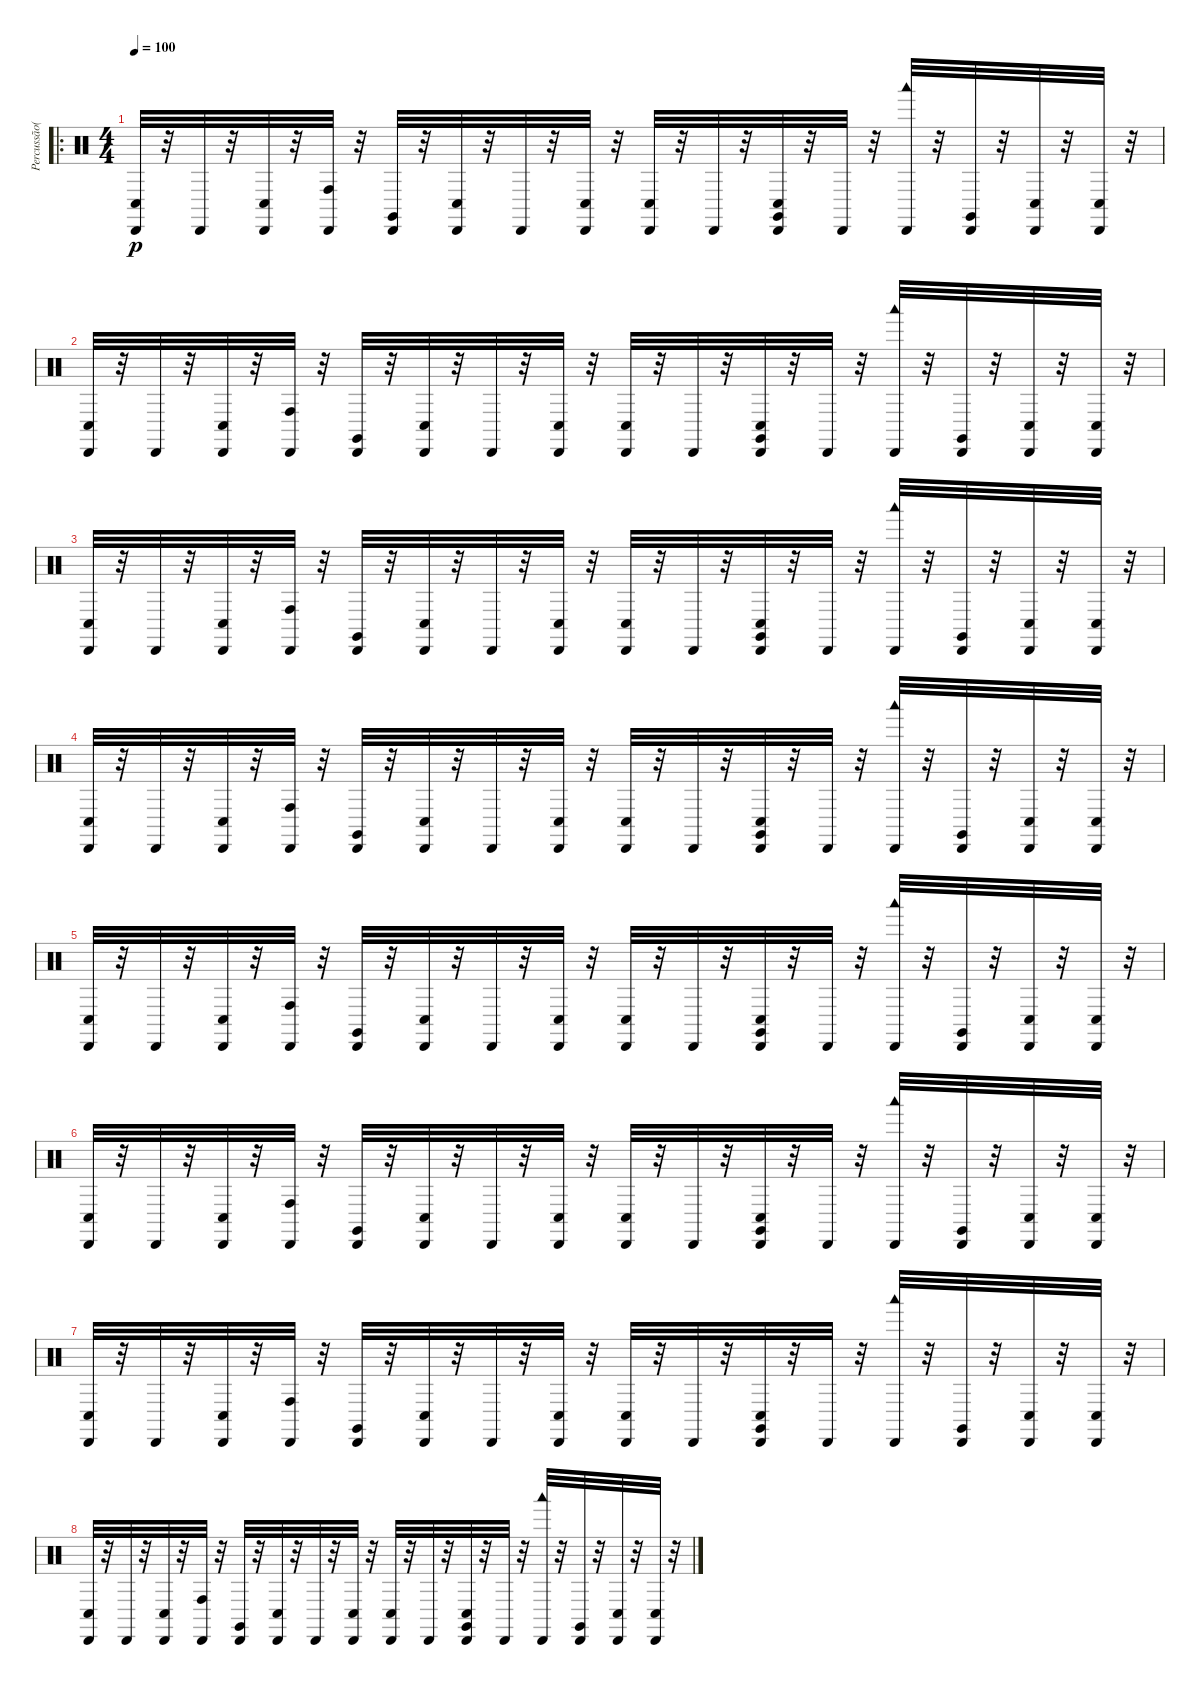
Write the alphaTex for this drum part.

\track ("Percussão(Percussion)" "Percussão(") {instrument percussion}
\staff {score}
\articulation defaults
\ro
\ts (4 4)
\tempo 100
\clef neutral
\ks c
("Cabasa (hit)" "Conga low (hit)").32{dy p} r.32 "Cabasa (hit)".32 r.32 ("Cabasa (hit)" "Conga low (hit)").32 r.32 ("Cabasa (hit)" "Conga high (hit)").32 r.32 ("Cabasa (hit)" "Claves (hit)").32 r.32 ("Cabasa (hit)" "Conga low (hit)").32 r.32 "Cabasa (hit)".32 r.32 ("Cabasa (hit)" "Conga low (hit)").32 r.32 ("Cabasa (hit)" "Conga low (hit)").32 r.32 "Cabasa (hit)".32 r.32 ("Cabasa (hit)" "Claves (hit)" "Conga low (hit)").32 r.32 "Cabasa (hit)".32 r.32 ("Cabasa (hit)" "Woodblock low (hit)").32 r.32 ("Cabasa (hit)" "Claves (hit)").32 r.32 ("Cabasa (hit)" "Conga low (hit)").32 r.32 ("Cabasa (hit)" "Conga low (hit)").32 r.32 |
("Cabasa (hit)" "Conga low (hit)").32 r.32 "Cabasa (hit)".32 r.32 ("Cabasa (hit)" "Conga low (hit)").32 r.32 ("Cabasa (hit)" "Conga high (hit)").32 r.32 ("Cabasa (hit)" "Claves (hit)").32 r.32 ("Cabasa (hit)" "Conga low (hit)").32 r.32 "Cabasa (hit)".32 r.32 ("Cabasa (hit)" "Conga low (hit)").32 r.32 ("Cabasa (hit)" "Conga low (hit)").32 r.32 "Cabasa (hit)".32 r.32 ("Cabasa (hit)" "Claves (hit)" "Conga low (hit)").32 r.32 "Cabasa (hit)".32 r.32 ("Cabasa (hit)" "Woodblock low (hit)").32 r.32 ("Cabasa (hit)" "Claves (hit)").32 r.32 ("Cabasa (hit)" "Conga low (hit)").32 r.32 ("Cabasa (hit)" "Conga low (hit)").32 r.32 |
("Cabasa (hit)" "Conga low (hit)").32 r.32 "Cabasa (hit)".32 r.32 ("Cabasa (hit)" "Conga low (hit)").32 r.32 ("Cabasa (hit)" "Conga high (hit)").32 r.32 ("Cabasa (hit)" "Claves (hit)").32 r.32 ("Cabasa (hit)" "Conga low (hit)").32 r.32 "Cabasa (hit)".32 r.32 ("Cabasa (hit)" "Conga low (hit)").32 r.32 ("Cabasa (hit)" "Conga low (hit)").32 r.32 "Cabasa (hit)".32 r.32 ("Cabasa (hit)" "Claves (hit)" "Conga low (hit)").32 r.32 "Cabasa (hit)".32 r.32 ("Cabasa (hit)" "Woodblock low (hit)").32 r.32 ("Cabasa (hit)" "Claves (hit)").32 r.32 ("Cabasa (hit)" "Conga low (hit)").32 r.32 ("Cabasa (hit)" "Conga low (hit)").32 r.32 |
("Cabasa (hit)" "Conga low (hit)").32 r.32 "Cabasa (hit)".32 r.32 ("Cabasa (hit)" "Conga low (hit)").32 r.32 ("Cabasa (hit)" "Conga high (hit)").32 r.32 ("Cabasa (hit)" "Claves (hit)").32 r.32 ("Cabasa (hit)" "Conga low (hit)").32 r.32 "Cabasa (hit)".32 r.32 ("Cabasa (hit)" "Conga low (hit)").32 r.32 ("Cabasa (hit)" "Conga low (hit)").32 r.32 "Cabasa (hit)".32 r.32 ("Cabasa (hit)" "Claves (hit)" "Conga low (hit)").32 r.32 "Cabasa (hit)".32 r.32 ("Cabasa (hit)" "Woodblock low (hit)").32 r.32 ("Cabasa (hit)" "Claves (hit)").32 r.32 ("Cabasa (hit)" "Conga low (hit)").32 r.32 ("Cabasa (hit)" "Conga low (hit)").32 r.32 |
("Cabasa (hit)" "Conga low (hit)").32 r.32 "Cabasa (hit)".32 r.32 ("Cabasa (hit)" "Conga low (hit)").32 r.32 ("Cabasa (hit)" "Conga high (hit)").32 r.32 ("Cabasa (hit)" "Claves (hit)").32 r.32 ("Cabasa (hit)" "Conga low (hit)").32 r.32 "Cabasa (hit)".32 r.32 ("Cabasa (hit)" "Conga low (hit)").32 r.32 ("Cabasa (hit)" "Conga low (hit)").32 r.32 "Cabasa (hit)".32 r.32 ("Cabasa (hit)" "Claves (hit)" "Conga low (hit)").32 r.32 "Cabasa (hit)".32 r.32 ("Cabasa (hit)" "Woodblock low (hit)").32 r.32 ("Cabasa (hit)" "Claves (hit)").32 r.32 ("Cabasa (hit)" "Conga low (hit)").32 r.32 ("Cabasa (hit)" "Conga low (hit)").32 r.32 |
("Cabasa (hit)" "Conga low (hit)").32 r.32 "Cabasa (hit)".32 r.32 ("Cabasa (hit)" "Conga low (hit)").32 r.32 ("Cabasa (hit)" "Conga high (hit)").32 r.32 ("Cabasa (hit)" "Claves (hit)").32 r.32 ("Cabasa (hit)" "Conga low (hit)").32 r.32 "Cabasa (hit)".32 r.32 ("Cabasa (hit)" "Conga low (hit)").32 r.32 ("Cabasa (hit)" "Conga low (hit)").32 r.32 "Cabasa (hit)".32 r.32 ("Cabasa (hit)" "Claves (hit)" "Conga low (hit)").32 r.32 "Cabasa (hit)".32 r.32 ("Cabasa (hit)" "Woodblock low (hit)").32 r.32 ("Cabasa (hit)" "Claves (hit)").32 r.32 ("Cabasa (hit)" "Conga low (hit)").32 r.32 ("Cabasa (hit)" "Conga low (hit)").32 r.32 |
("Cabasa (hit)" "Conga low (hit)").32 r.32 "Cabasa (hit)".32 r.32 ("Cabasa (hit)" "Conga low (hit)").32 r.32 ("Cabasa (hit)" "Conga high (hit)").32 r.32 ("Cabasa (hit)" "Claves (hit)").32 r.32 ("Cabasa (hit)" "Conga low (hit)").32 r.32 "Cabasa (hit)".32 r.32 ("Cabasa (hit)" "Conga low (hit)").32 r.32 ("Cabasa (hit)" "Conga low (hit)").32 r.32 "Cabasa (hit)".32 r.32 ("Cabasa (hit)" "Claves (hit)" "Conga low (hit)").32 r.32 "Cabasa (hit)".32 r.32 ("Cabasa (hit)" "Woodblock low (hit)").32 r.32 ("Cabasa (hit)" "Claves (hit)").32 r.32 ("Cabasa (hit)" "Conga low (hit)").32 r.32 ("Cabasa (hit)" "Conga low (hit)").32 r.32 |
("Cabasa (hit)" "Conga low (hit)").32 r.32 "Cabasa (hit)".32 r.32 ("Cabasa (hit)" "Conga low (hit)").32 r.32 ("Cabasa (hit)" "Conga high (hit)").32 r.32 ("Cabasa (hit)" "Claves (hit)").32 r.32 ("Cabasa (hit)" "Conga low (hit)").32 r.32 "Cabasa (hit)".32 r.32 ("Cabasa (hit)" "Conga low (hit)").32 r.32 ("Cabasa (hit)" "Conga low (hit)").32 r.32 "Cabasa (hit)".32 r.32 ("Cabasa (hit)" "Claves (hit)" "Conga low (hit)").32 r.32 "Cabasa (hit)".32 r.32 ("Cabasa (hit)" "Woodblock low (hit)").32 r.32 ("Cabasa (hit)" "Claves (hit)").32 r.32 ("Cabasa (hit)" "Conga low (hit)").32 r.32 ("Cabasa (hit)" "Conga low (hit)").32 r.32
